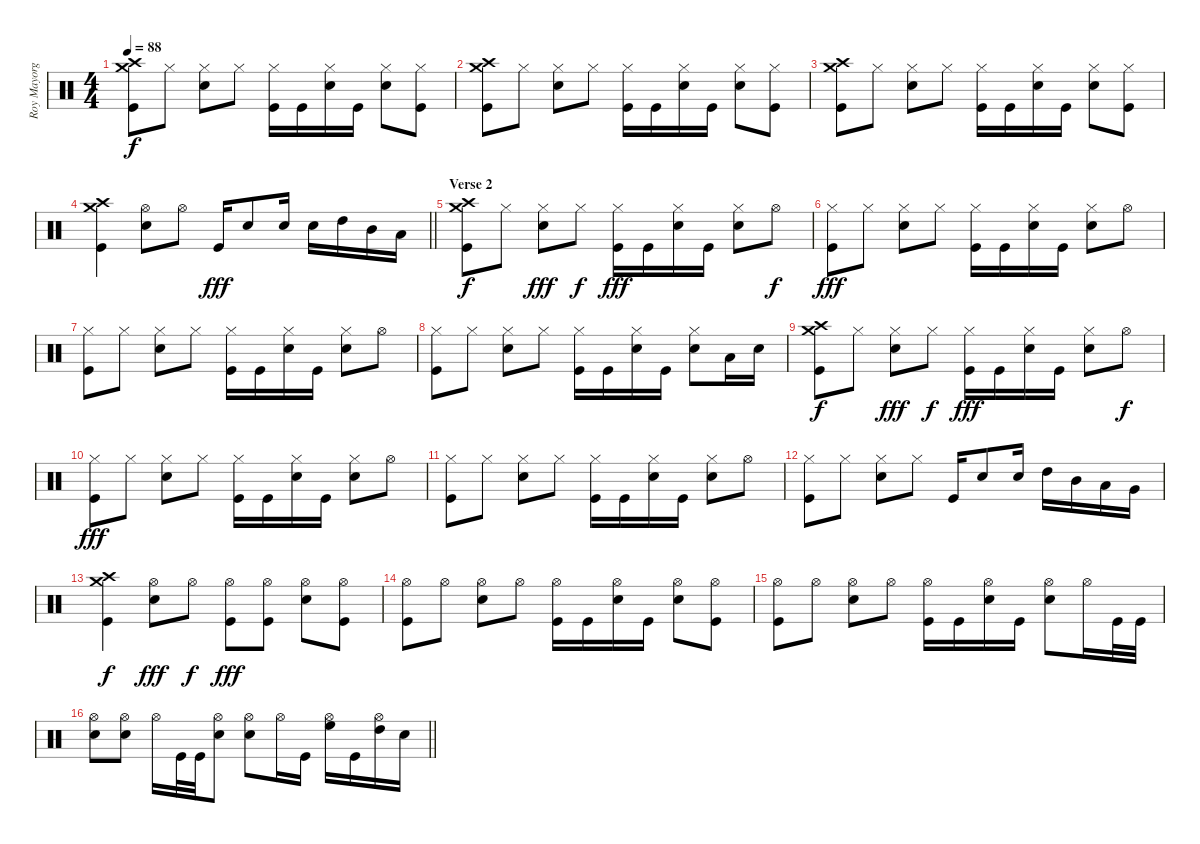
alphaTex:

\track ("Roy Mayorga" "Roy Mayorg") {instrument percussion}
\staff {score}
\articulation defaults
\ts (4 4)
\tempo 88
\clef neutral
\ks c
("Crash medium (hit)" "Crash high (hit)" "Kick (hit)").8{dy f} "Hi-Hat (closed)".8 ("Hi-Hat (closed)" "Snare (hit) 2").8 "Hi-Hat (closed)".8 ("Hi-Hat (closed)" "Kick (hit)").16 "Kick (hit)".16 ("Hi-Hat (closed)" "Snare (hit) 2").16 "Kick (hit)".16 ("Hi-Hat (closed)" "Snare (hit) 2").8 ("Hi-Hat (closed)" "Kick (hit)").8 |
("Crash medium (hit)" "Crash high (hit)" "Kick (hit)").8 "Hi-Hat (closed)".8 ("Hi-Hat (closed)" "Snare (hit) 2").8 "Hi-Hat (closed)".8 ("Hi-Hat (closed)" "Kick (hit)").16 "Kick (hit)".16 ("Hi-Hat (closed)" "Snare (hit) 2").16 "Kick (hit)".16 ("Hi-Hat (closed)" "Snare (hit) 2").8 ("Hi-Hat (closed)" "Kick (hit)").8 |
("Crash medium (hit)" "Crash high (hit)" "Kick (hit)").8 "Hi-Hat (closed)".8 ("Hi-Hat (closed)" "Snare (hit) 2").8 "Hi-Hat (closed)".8 ("Hi-Hat (closed)" "Kick (hit)").16 "Kick (hit)".16 ("Hi-Hat (closed)" "Snare (hit) 2").16 "Kick (hit)".16 ("Hi-Hat (closed)" "Snare (hit) 2").8 ("Hi-Hat (closed)" "Kick (hit)").8 |
\barLineRight lightlight
("Crash medium (hit)" "Crash high (hit)" "Kick (hit)").4 ("Hi-Hat (open)" "Snare (hit) 2").8 "Hi-Hat (open)".8 "Kick (hit)".16{dy fff} "Snare (hit) 2".8 "Snare (hit) 2".16 "Snare (hit) 2".16 "High Tom (hit)".16 "Mid Tom (hit)".16 "Low Tom (hit)".16 |
\section ("" "Verse 2")
("Crash medium (hit)" "Crash high (hit)" "Kick (hit)").8{dy f} "Hi-Hat (closed)".8 ("Hi-Hat (closed)" "Snare (hit) 2").8{dy fff} "Hi-Hat (closed)".8{dy f} ("Hi-Hat (closed)" "Kick (hit)").16{dy fff} "Kick (hit)".16 ("Hi-Hat (closed)" "Snare (hit) 2").16 "Kick (hit)".16 ("Hi-Hat (closed)" "Snare (hit) 2").8 "Hi-Hat (open)".8{dy f} |
("Hi-Hat (closed)" "Kick (hit)").8{dy fff} "Hi-Hat (closed)".8 ("Hi-Hat (closed)" "Snare (hit) 2").8 "Hi-Hat (closed)".8 ("Hi-Hat (closed)" "Kick (hit)").16 "Kick (hit)".16 ("Hi-Hat (closed)" "Snare (hit) 2").16 "Kick (hit)".16 ("Hi-Hat (closed)" "Snare (hit) 2").8 "Hi-Hat (open)".8 |
("Hi-Hat (closed)" "Kick (hit)").8 "Hi-Hat (closed)".8 ("Hi-Hat (closed)" "Snare (hit) 2").8 "Hi-Hat (closed)".8 ("Hi-Hat (closed)" "Kick (hit)").16 "Kick (hit)".16 ("Hi-Hat (closed)" "Snare (hit) 2").16 "Kick (hit)".16 ("Hi-Hat (closed)" "Snare (hit) 2").8 "Hi-Hat (open)".8 |
("Hi-Hat (closed)" "Kick (hit)").8 "Hi-Hat (closed)".8 ("Hi-Hat (closed)" "Snare (hit) 2").8 "Hi-Hat (closed)".8 ("Hi-Hat (closed)" "Kick (hit)").16 "Kick (hit)".16 ("Hi-Hat (closed)" "Snare (hit) 2").16 "Kick (hit)".16 ("Hi-Hat (closed)" "Snare (hit) 2").8 "Low Tom (hit)".16 "Snare (hit) 2".16 |
("Crash medium (hit)" "Crash high (hit)" "Kick (hit)").8{dy f} "Hi-Hat (closed)".8 ("Hi-Hat (closed)" "Snare (hit) 2").8{dy fff} "Hi-Hat (closed)".8{dy f} ("Hi-Hat (closed)" "Kick (hit)").16{dy fff} "Kick (hit)".16 ("Hi-Hat (closed)" "Snare (hit) 2").16 "Kick (hit)".16 ("Hi-Hat (closed)" "Snare (hit) 2").8 "Hi-Hat (open)".8{dy f} |
("Hi-Hat (closed)" "Kick (hit)").8{dy fff} "Hi-Hat (closed)".8 ("Hi-Hat (closed)" "Snare (hit) 2").8 "Hi-Hat (closed)".8 ("Hi-Hat (closed)" "Kick (hit)").16 "Kick (hit)".16 ("Hi-Hat (closed)" "Snare (hit) 2").16 "Kick (hit)".16 ("Hi-Hat (closed)" "Snare (hit) 2").8 "Hi-Hat (open)".8 |
("Hi-Hat (closed)" "Kick (hit)").8 "Hi-Hat (closed)".8 ("Hi-Hat (closed)" "Snare (hit) 2").8 "Hi-Hat (closed)".8 ("Hi-Hat (closed)" "Kick (hit)").16 "Kick (hit)".16 ("Hi-Hat (closed)" "Snare (hit) 2").16 "Kick (hit)".16 ("Hi-Hat (closed)" "Snare (hit) 2").8 "Hi-Hat (open)".8 |
("Hi-Hat (closed)" "Kick (hit)").8 "Hi-Hat (closed)".8 ("Hi-Hat (closed)" "Snare (hit) 2").8 "Hi-Hat (closed)".8 "Kick (hit)".16 "Snare (hit) 2".8 "Snare (hit) 2".16 "High Tom (hit)".16 "Mid Tom (hit)".16 "Low Tom (hit)".16 "Very Low Tom (hit)".16 |
("Crash medium (hit)" "Crash high (hit)" "Kick (hit)").4{dy f} ("Hi-Hat (open)" "Snare (hit) 2").8{dy fff} "Hi-Hat (open)".8{dy f} ("Hi-Hat (open)" "Kick (hit)").8{dy fff} ("Hi-Hat (open)" "Kick (hit)").8 ("Hi-Hat (open)" "Snare (hit) 2").8 ("Hi-Hat (open)" "Kick (hit)").8 |
("Hi-Hat (open)" "Kick (hit)").8 "Hi-Hat (open)".8 ("Hi-Hat (open)" "Snare (hit) 2").8 "Hi-Hat (open)".8 ("Hi-Hat (open)" "Kick (hit)").16 "Kick (hit)".16 ("Hi-Hat (open)" "Snare (hit) 2").16 "Kick (hit)".16 ("Hi-Hat (open)" "Snare (hit) 2").8 ("Hi-Hat (open)" "Kick (hit)").8 |
("Hi-Hat (open)" "Kick (hit)").8 "Hi-Hat (open)".8 ("Hi-Hat (open)" "Snare (hit) 2").8 "Hi-Hat (open)".8 ("Hi-Hat (open)" "Kick (hit)").16 "Kick (hit)".16 ("Hi-Hat (open)" "Snare (hit) 2").16 "Kick (hit)".16 ("Hi-Hat (open)" "Snare (hit) 2").8 "Hi-Hat (open)".16 "Kick (hit)".32 "Kick (hit)".32 |
\barLineRight lightlight
("Hi-Hat (open)" "Snare (hit) 2").8 ("Hi-Hat (open)" "Snare (hit) 2").8 "Hi-Hat (open)".16 "Kick (hit)".32 "Kick (hit)".32 ("Hi-Hat (open)" "Snare (hit) 2").8 ("Hi-Hat (open)" "Snare (hit) 2").8 "Hi-Hat (open)".16 "Kick (hit)".16 ("High Floor Tom (hit)" "Hi-Hat (open)").16 "Kick (hit)".16 ("Hi-Hat (open)" "High Tom (hit)").16 "Snare (hit) 2".16
